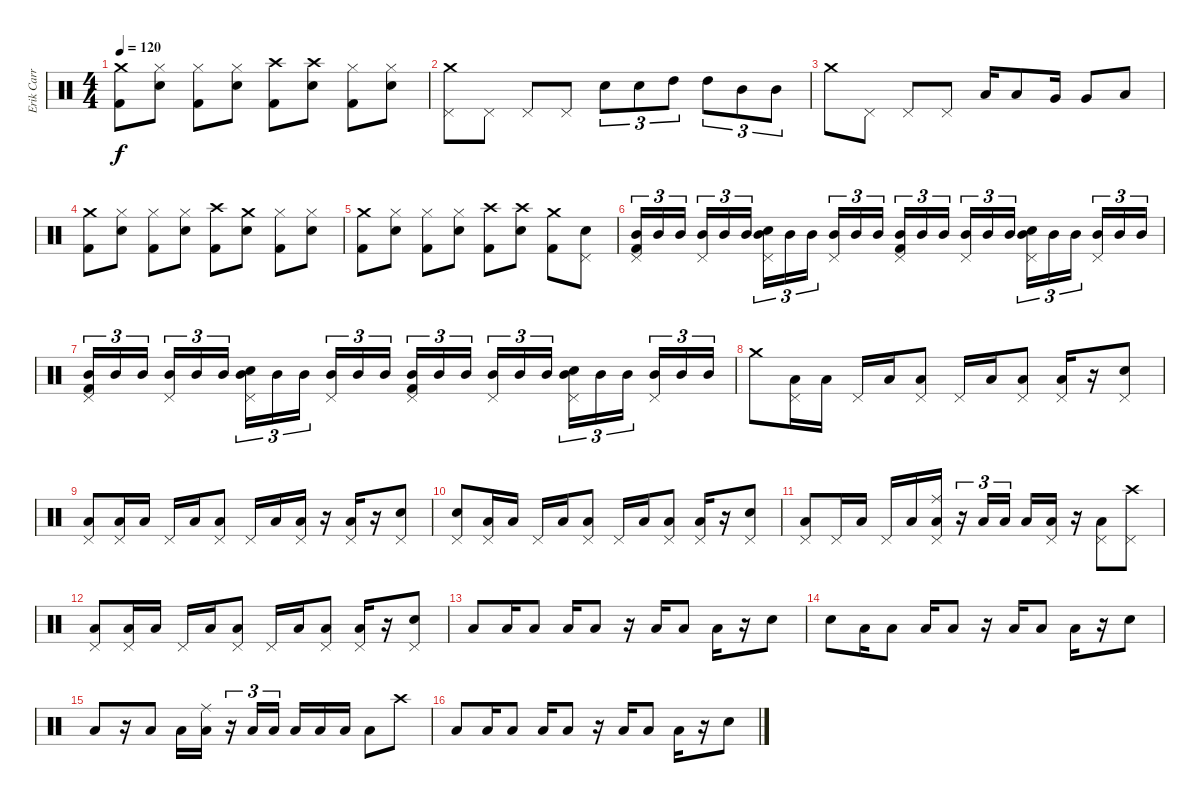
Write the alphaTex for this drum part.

\track ("Erik Carr / Drums" "Erik Carr ") {instrument percussion}
\staff {score}
\articulation defaults
\ts (4 4)
\tempo 120
\clef neutral
\ks c
("Kick (hit) 2" "Crash medium (hit)").8{dy f} ("Electric Snare (hit)" "Hi-Hat (closed)").8 ("Kick (hit) 2" "Hi-Hat (closed)").8 ("Electric Snare (hit)" "Hi-Hat (closed)").8 ("Kick (hit) 2" "Crash high (hit)").8 ("Electric Snare (hit)" "Crash high (hit)").8 ("Kick (hit) 2" "Hi-Hat (closed)").8 ("Electric Snare (hit)" "Hi-Hat (closed)").8 |
("Crash medium (hit)" "Pedal Hi-Hat (hit)").8 "Pedal Hi-Hat (hit)".8 "Pedal Hi-Hat (hit)".8 "Pedal Hi-Hat (hit)".8 "Electric Snare (hit)".8{tu (3 2)} "Electric Snare (hit)".8{tu (3 2)} "High Tom (hit)".8{tu (3 2)} "High Tom (hit)".8{tu (3 2)} "Mid Tom (hit)".8{tu (3 2)} "Mid Tom (hit)".8{tu (3 2)} |
"Crash medium (hit)".8 "Pedal Hi-Hat (hit)".8 "Pedal Hi-Hat (hit)".8 "Pedal Hi-Hat (hit)".8 "Low Tom (hit)".16 "Low Tom (hit)".8 "Very Low Tom (hit)".16 "Very Low Tom (hit)".8 "Low Floor Tom (hit)".8 |
("Crash medium (hit)" "Kick (hit) 2").8 ("Electric Snare (hit)" "Hi-Hat (closed)").8 ("Kick (hit) 2" "Hi-Hat (closed)").8 ("Electric Snare (hit)" "Hi-Hat (closed)").8 ("Crash high (hit)" "Kick (hit) 2").8 ("Electric Snare (hit)" "Crash medium (hit)").8 ("Kick (hit) 2" "Hi-Hat (closed)").8 ("Electric Snare (hit)" "Hi-Hat (closed)").8 |
("Kick (hit) 2" "Crash medium (hit)").8 ("Electric Snare (hit)" "Hi-Hat (closed)").8 ("Kick (hit) 2" "Hi-Hat (closed)").8 ("Electric Snare (hit)" "Hi-Hat (closed)").8 ("Kick (hit) 2" "Crash high (hit)").8 ("Electric Snare (hit)" "Crash high (hit)").8 ("Crash medium (hit)" "Kick (hit) 2").8 ("Electric Snare (hit)" "Pedal Hi-Hat (hit)").8 |
("Pedal Hi-Hat (hit)" "Mid Tom (hit)" "Kick (hit) 2").16{tu (3 2)} "Mid Tom (hit)".16{tu (3 2)} "Mid Tom (hit)".16{tu (3 2)} ("Pedal Hi-Hat (hit)" "Mid Tom (hit)").16{tu (3 2)} "Mid Tom (hit)".16{tu (3 2)} "Mid Tom (hit)".16{tu (3 2)} ("Pedal Hi-Hat (hit)" "Mid Tom (hit)" "Electric Snare (hit)").16{tu (3 2)} "Mid Tom (hit)".16{tu (3 2)} "Mid Tom (hit)".16{tu (3 2)} ("Pedal Hi-Hat (hit)" "Mid Tom (hit)").16{tu (3 2)} "Mid Tom (hit)".16{tu (3 2)} "Mid Tom (hit)".16{tu (3 2)} ("Pedal Hi-Hat (hit)" "Mid Tom (hit)" "Kick (hit) 2").16{tu (3 2)} "Mid Tom (hit)".16{tu (3 2)} "Mid Tom (hit)".16{tu (3 2)} ("Pedal Hi-Hat (hit)" "Mid Tom (hit)").16{tu (3 2)} "Mid Tom (hit)".16{tu (3 2)} "Mid Tom (hit)".16{tu (3 2)} ("Pedal Hi-Hat (hit)" "Mid Tom (hit)" "Electric Snare (hit)").16{tu (3 2)} "Mid Tom (hit)".16{tu (3 2)} "Mid Tom (hit)".16{tu (3 2)} ("Pedal Hi-Hat (hit)" "Mid Tom (hit)").16{tu (3 2)} "Mid Tom (hit)".16{tu (3 2)} "Mid Tom (hit)".16{tu (3 2)} |
("Pedal Hi-Hat (hit)" "Mid Tom (hit)" "Kick (hit) 2").16{tu (3 2)} "Mid Tom (hit)".16{tu (3 2)} "Mid Tom (hit)".16{tu (3 2)} ("Pedal Hi-Hat (hit)" "Mid Tom (hit)").16{tu (3 2)} "Mid Tom (hit)".16{tu (3 2)} "Mid Tom (hit)".16{tu (3 2)} ("Pedal Hi-Hat (hit)" "Mid Tom (hit)" "Electric Snare (hit)").16{tu (3 2)} "Mid Tom (hit)".16{tu (3 2)} "Mid Tom (hit)".16{tu (3 2)} ("Pedal Hi-Hat (hit)" "Mid Tom (hit)").16{tu (3 2)} "Mid Tom (hit)".16{tu (3 2)} "Mid Tom (hit)".16{tu (3 2)} ("Pedal Hi-Hat (hit)" "Mid Tom (hit)" "Kick (hit) 2").16{tu (3 2)} "Mid Tom (hit)".16{tu (3 2)} "Mid Tom (hit)".16{tu (3 2)} ("Pedal Hi-Hat (hit)" "Mid Tom (hit)").16{tu (3 2)} "Mid Tom (hit)".16{tu (3 2)} "Mid Tom (hit)".16{tu (3 2)} ("Pedal Hi-Hat (hit)" "Mid Tom (hit)" "Electric Snare (hit)").16{tu (3 2)} "Mid Tom (hit)".16{tu (3 2)} "Mid Tom (hit)".16{tu (3 2)} ("Pedal Hi-Hat (hit)" "Mid Tom (hit)").16{tu (3 2)} "Mid Tom (hit)".16{tu (3 2)} "Mid Tom (hit)".16{tu (3 2)} |
"Crash medium (hit)".8 ("Pedal Hi-Hat (hit)" "Low Tom (hit)").16 "Low Tom (hit)".16 "Pedal Hi-Hat (hit)".16 "Low Tom (hit)".16 ("Pedal Hi-Hat (hit)" "Low Tom (hit)").8 "Pedal Hi-Hat (hit)".16 "Low Tom (hit)".16 ("Pedal Hi-Hat (hit)" "Low Tom (hit)").8 ("Pedal Hi-Hat (hit)" "Low Tom (hit)").16 r.16 ("Pedal Hi-Hat (hit)" "Electric Snare (hit)").8 |
("Pedal Hi-Hat (hit)" "Low Tom (hit)").8 ("Pedal Hi-Hat (hit)" "Low Tom (hit)").16 "Low Tom (hit)".16 "Pedal Hi-Hat (hit)".16 "Low Tom (hit)".16 ("Pedal Hi-Hat (hit)" "Low Tom (hit)").8 "Pedal Hi-Hat (hit)".16 "Low Tom (hit)".16 ("Pedal Hi-Hat (hit)" "Low Tom (hit)").16 r.16 ("Pedal Hi-Hat (hit)" "Low Tom (hit)").16 r.16 ("Pedal Hi-Hat (hit)" "Electric Snare (hit)").8 |
("Pedal Hi-Hat (hit)" "Electric Snare (hit)").8 ("Pedal Hi-Hat (hit)" "Low Tom (hit)").16 "Low Tom (hit)".16 "Pedal Hi-Hat (hit)".16 "Low Tom (hit)".16 ("Pedal Hi-Hat (hit)" "Low Tom (hit)").8 "Pedal Hi-Hat (hit)".16 "Low Tom (hit)".16 ("Pedal Hi-Hat (hit)" "Low Tom (hit)").8 ("Pedal Hi-Hat (hit)" "Low Tom (hit)").16 r.16 ("Pedal Hi-Hat (hit)" "Electric Snare (hit)").8 |
("Pedal Hi-Hat (hit)" "Low Tom (hit)").8 "Pedal Hi-Hat (hit)".16 "Low Tom (hit)".16 "Pedal Hi-Hat (hit)".16 "Low Tom (hit)".16 ("Pedal Hi-Hat (hit)" "Low Tom (hit)" "Ride (middle)").16 r.16{tu (3 2)} "Low Tom (hit)".16{tu (3 2)} "Low Tom (hit)".16{tu (3 2)} "Low Tom (hit)".16 ("Pedal Hi-Hat (hit)" "Low Tom (hit)").16 r.16 ("Pedal Hi-Hat (hit)" "Low Tom (hit)").8 ("Pedal Hi-Hat (hit)" "Crash high (hit)").8 |
("Pedal Hi-Hat (hit)" "Low Tom (hit)").8 ("Pedal Hi-Hat (hit)" "Low Tom (hit)").16 "Low Tom (hit)".16 "Pedal Hi-Hat (hit)".16 "Low Tom (hit)".16 ("Pedal Hi-Hat (hit)" "Low Tom (hit)").8 "Pedal Hi-Hat (hit)".16 "Low Tom (hit)".16 ("Pedal Hi-Hat (hit)" "Low Tom (hit)").8 ("Pedal Hi-Hat (hit)" "Low Tom (hit)").16 r.16 ("Pedal Hi-Hat (hit)" "Electric Snare (hit)").8 |
"Low Tom (hit)".8 "Low Tom (hit)".16 "Low Tom (hit)".8 "Low Tom (hit)".16 "Low Tom (hit)".8 r.16 "Low Tom (hit)".16 "Low Tom (hit)".8 "Low Tom (hit)".16 r.16 "Electric Snare (hit)".8 |
"Electric Snare (hit)".8 "Low Tom (hit)".16 "Low Tom (hit)".8 "Low Tom (hit)".16 "Low Tom (hit)".8 r.16 "Low Tom (hit)".16 "Low Tom (hit)".8 "Low Tom (hit)".16 r.16 "Electric Snare (hit)".8 |
"Low Tom (hit)".8 r.16 "Low Tom (hit)".8 "Low Tom (hit)".16 ("Low Tom (hit)" "Ride (middle)").16 r.16{tu (3 2)} "Low Tom (hit)".16{tu (3 2)} "Low Tom (hit)".16{tu (3 2)} "Low Tom (hit)".16 "Low Tom (hit)".16 "Low Tom (hit)".16 "Low Tom (hit)".8 "Crash high (hit)".8 |
"Low Tom (hit)".8 "Low Tom (hit)".16 "Low Tom (hit)".8 "Low Tom (hit)".16 "Low Tom (hit)".8 r.16 "Low Tom (hit)".16 "Low Tom (hit)".8 "Low Tom (hit)".16 r.16 "Electric Snare (hit)".8
